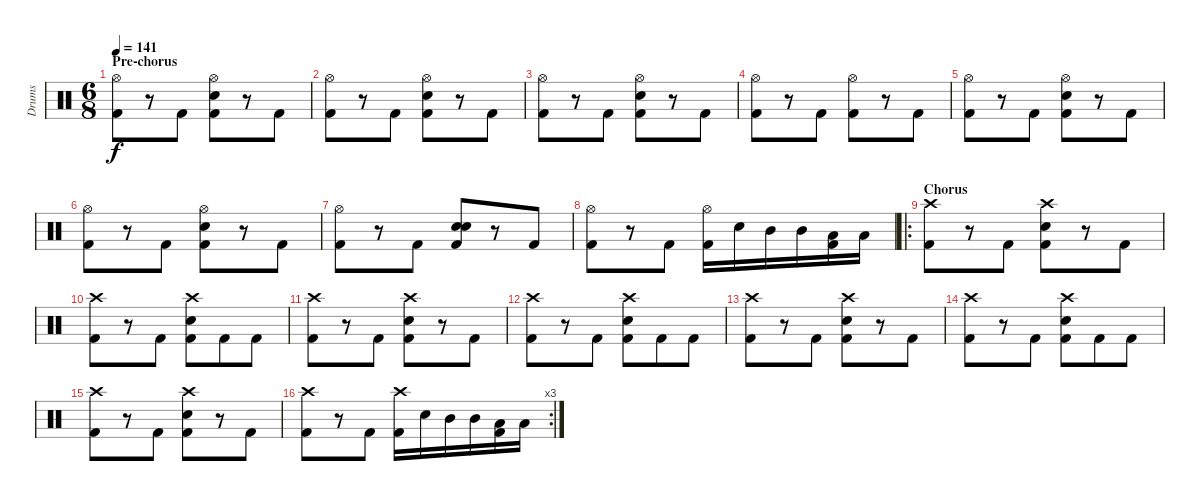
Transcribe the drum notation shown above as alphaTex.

\track ("Drums" "Drums") {instrument percussion}
\staff {score}
\articulation defaults
\ts (6 8)
\section ("" "Pre-chorus")
\tempo 141
\clef neutral
\ks c
("Hi-Hat (open)" "Kick (hit) 2").8{dy f} r.8 "Kick (hit) 2".8 ("Hi-Hat (open)" "Electric Snare (hit)" "Kick (hit) 2").8 r.8 "Kick (hit) 2".8 |
("Hi-Hat (open)" "Kick (hit) 2").8 r.8 "Kick (hit) 2".8 ("Hi-Hat (open)" "Electric Snare (hit)" "Kick (hit) 2").8 r.8 "Kick (hit) 2".8 |
("Hi-Hat (open)" "Kick (hit) 2").8 r.8 "Kick (hit) 2".8 ("Hi-Hat (open)" "Electric Snare (hit)" "Kick (hit) 2").8 r.8 "Kick (hit) 2".8 |
("Hi-Hat (open)" "Kick (hit) 2").8 r.8 "Kick (hit) 2".8 ("Hi-Hat (open)" "Kick (hit) 2").8 r.8 "Kick (hit) 2".8 |
("Hi-Hat (open)" "Kick (hit) 2").8 r.8 "Kick (hit) 2".8 ("Hi-Hat (open)" "Electric Snare (hit)" "Kick (hit) 2").8 r.8 "Kick (hit) 2".8 |
("Hi-Hat (open)" "Kick (hit) 2").8 r.8 "Kick (hit) 2".8 ("Hi-Hat (open)" "Electric Snare (hit)" "Kick (hit) 2").8 r.8 "Kick (hit) 2".8 |
("Hi-Hat (open)" "Kick (hit) 2").8 r.8 "Kick (hit) 2".8 ("Snare (hit)" "Electric Snare (hit)" "Kick (hit) 2").8 r.8 "Kick (hit) 2".8 |
("Hi-Hat (open)" "Kick (hit) 2").8 r.8 "Kick (hit) 2".8 ("Hi-Hat (open)" "Kick (hit) 2").16 "Electric Snare (hit)".16 "Mid Tom (hit)".16 "Mid Tom (hit)".16 ("Low Tom (hit)" "Kick (hit) 2").16 "Low Tom (hit)".16 |
\ro
\section ("" "Chorus")
("Crash high (hit)" "Kick (hit) 2").8 r.8 "Kick (hit) 2".8 ("Crash high (hit)" "Electric Snare (hit)" "Kick (hit) 2").8 r.8 "Kick (hit) 2".8 |
("Crash high (hit)" "Kick (hit) 2").8 r.8 "Kick (hit) 2".8 ("Crash high (hit)" "Electric Snare (hit)" "Kick (hit) 2").8 "Kick (hit) 2".8 "Kick (hit) 2".8 |
("Crash high (hit)" "Kick (hit) 2").8 r.8 "Kick (hit) 2".8 ("Crash high (hit)" "Electric Snare (hit)" "Kick (hit) 2").8 r.8 "Kick (hit) 2".8 |
("Crash high (hit)" "Kick (hit) 2").8 r.8 "Kick (hit) 2".8 ("Crash high (hit)" "Electric Snare (hit)" "Kick (hit) 2").8 "Kick (hit) 2".8 "Kick (hit) 2".8 |
("Crash high (hit)" "Kick (hit) 2").8 r.8 "Kick (hit) 2".8 ("Crash high (hit)" "Electric Snare (hit)" "Kick (hit) 2").8 r.8 "Kick (hit) 2".8 |
("Crash high (hit)" "Kick (hit) 2").8 r.8 "Kick (hit) 2".8 ("Crash high (hit)" "Electric Snare (hit)" "Kick (hit) 2").8 "Kick (hit) 2".8 "Kick (hit) 2".8 |
("Crash high (hit)" "Kick (hit) 2").8 r.8 "Kick (hit) 2".8 ("Crash high (hit)" "Electric Snare (hit)" "Kick (hit) 2").8 r.8 "Kick (hit) 2".8 |
\rc 3
("Crash high (hit)" "Kick (hit) 2").8 r.8 "Kick (hit) 2".8 ("Crash high (hit)" "Kick (hit) 2").16 "Snare (hit)".16 "Mid Tom (hit)".16 "Mid Tom (hit)".16 ("Low Tom (hit)" "Kick (hit) 2").16 "Low Tom (hit)".16
